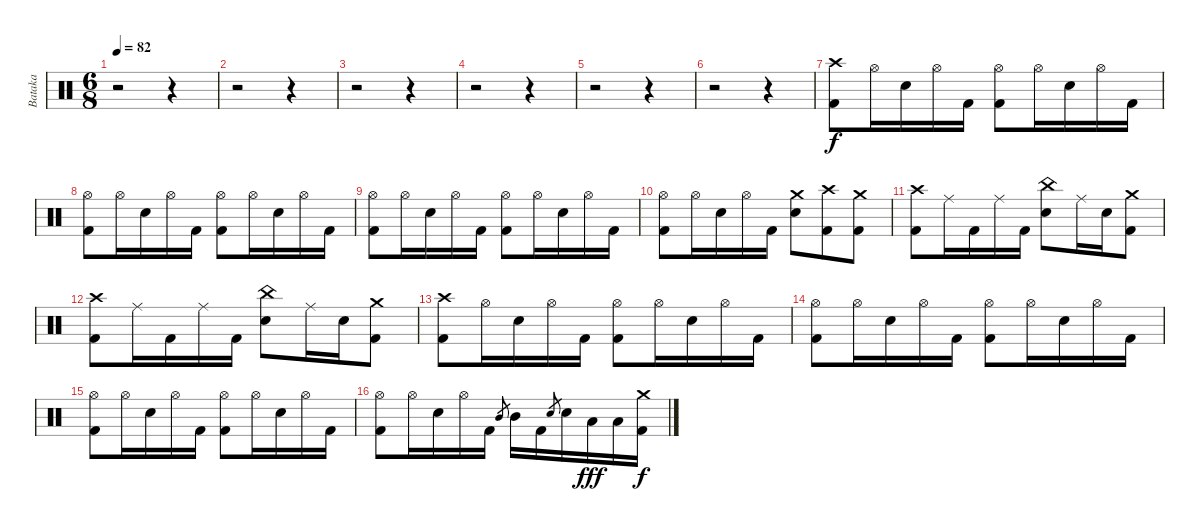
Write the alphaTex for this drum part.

\track ("Bataka" "Bataka") {instrument percussion}
\staff {score}
\articulation defaults
\ts (6 8)
\tempo 82
\clef neutral
\ks c
r.2{dy f} r.4 |
r.2 r.4 |
r.2 r.4 |
r.2 r.4 |
r.2 r.4 |
r.2 r.4 |
("Crash high (hit)" "Kick (hit) 2").8 "Hi-Hat (open)".16 "Snare (hit) 2".16 "Hi-Hat (open)".16 "Kick (hit) 2".16 ("Hi-Hat (open)" "Kick (hit) 2").8 "Hi-Hat (open)".16 "Snare (hit) 2".16 "Hi-Hat (open)".16 "Kick (hit) 2".16 |
("Hi-Hat (open)" "Kick (hit) 2").8 "Hi-Hat (open)".16 "Snare (hit) 2".16 "Hi-Hat (open)".16 "Kick (hit) 2".16 ("Hi-Hat (open)" "Kick (hit) 2").8 "Hi-Hat (open)".16 "Snare (hit) 2".16 "Hi-Hat (open)".16 "Kick (hit) 2".16 |
("Hi-Hat (open)" "Kick (hit) 2").8 "Hi-Hat (open)".16 "Snare (hit) 2".16 "Hi-Hat (open)".16 "Kick (hit) 2".16 ("Hi-Hat (open)" "Kick (hit) 2").8 "Hi-Hat (open)".16 "Snare (hit) 2".16 "Hi-Hat (open)".16 "Kick (hit) 2".16 |
("Hi-Hat (open)" "Kick (hit) 2").8 "Hi-Hat (open)".16 "Snare (hit) 2".16 "Hi-Hat (open)".16 "Kick (hit) 2".16 ("Crash medium (hit)" "Snare (hit) 2").8 ("Crash high (hit)" "Kick (hit) 2").8 ("Crash medium (hit)" "Kick (hit) 2").8 |
("Crash high (hit)" "Kick (hit) 2").8 "Ride (middle)".16 "Kick (hit) 2".16 "Ride (middle)".16 "Kick (hit) 2".16 ("China (hit)" "Snare (hit) 2").8 "Ride (middle)".16 "Snare (hit) 2".16 ("Crash medium (hit)" "Kick (hit) 2").8 |
("Crash high (hit)" "Kick (hit) 2").8 "Ride (middle)".16 "Kick (hit) 2".16 "Ride (middle)".16 "Kick (hit) 2".16 ("China (hit)" "Snare (hit) 2").8 "Ride (middle)".16 "Snare (hit) 2".16 ("Crash medium (hit)" "Kick (hit) 2").8 |
("Crash high (hit)" "Kick (hit) 2").8 "Hi-Hat (open)".16 "Snare (hit) 2".16 "Hi-Hat (open)".16 "Kick (hit) 2".16 ("Hi-Hat (open)" "Kick (hit) 2").8 "Hi-Hat (open)".16 "Snare (hit) 2".16 "Hi-Hat (open)".16 "Kick (hit) 2".16 |
("Hi-Hat (open)" "Kick (hit) 2").8 "Hi-Hat (open)".16 "Snare (hit) 2".16 "Hi-Hat (open)".16 "Kick (hit) 2".16 ("Hi-Hat (open)" "Kick (hit) 2").8 "Hi-Hat (open)".16 "Snare (hit) 2".16 "Hi-Hat (open)".16 "Kick (hit) 2".16 |
("Hi-Hat (open)" "Kick (hit) 2").8 "Hi-Hat (open)".16 "Snare (hit) 2".16 "Hi-Hat (open)".16 "Kick (hit) 2".16 ("Hi-Hat (open)" "Kick (hit) 2").8 "Hi-Hat (open)".16 "Snare (hit) 2".16 "Hi-Hat (open)".16 "Kick (hit) 2".16 |
("Hi-Hat (open)" "Kick (hit) 2").8 "Hi-Hat (open)".16 "Snare (hit) 2".16 "Hi-Hat (open)".16 "Kick (hit) 2".16 "Mid Tom (hit)".8{gr} "Mid Tom (hit)".16 "Kick (hit) 2".16 "Electric Snare (hit)".8{gr} "Snare (hit) 2".16 "Low Tom (hit)".16{dy fff} "Low Tom (hit)".16 ("Crash medium (hit)" "Kick (hit) 2").16{dy f}
